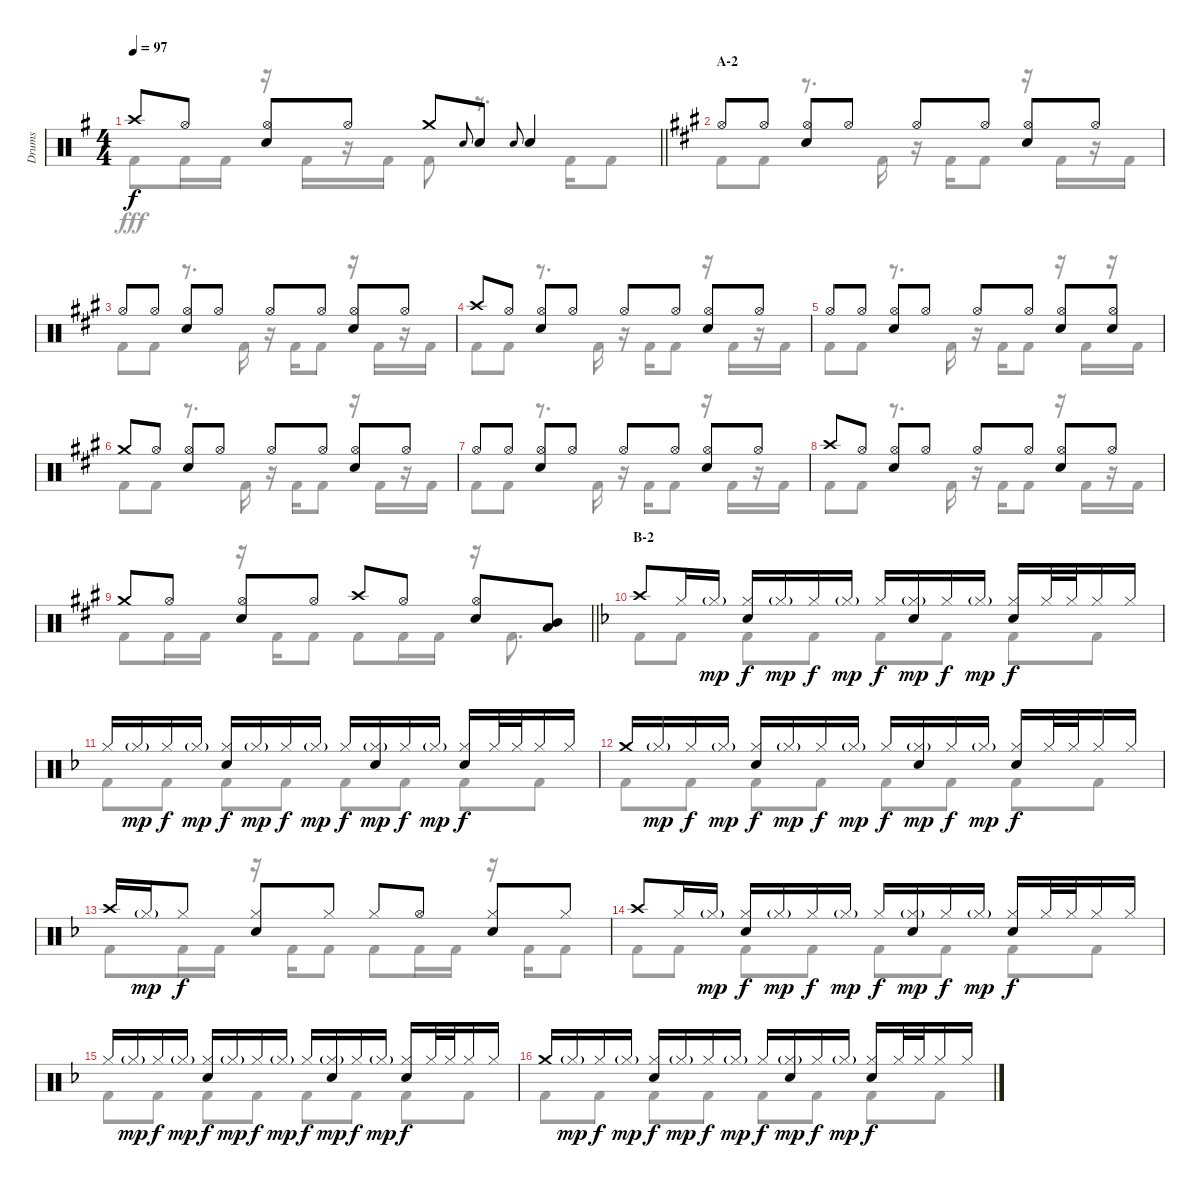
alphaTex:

\track ("Drums" "Drums") {instrument percussion}
\staff {score}
\articulation defaults
\voice
\ts (4 4)
\tempo 97
\clef neutral
\barLineRight lightlight
\ks eminor "Crash high (hit)".8{dy f} "Hi-Hat (open)".8
("Hi-Hat (open)" "Snare (hit) 2").8 "Hi-Hat (open)".8 "Crash medium (hit)".8 "Snare (hit) 2".8{gr onbeat} "Snare (hit) 2".8 "Snare (hit) 2".8{gr onbeat} "Snare (hit) 2".4 |
\section ("" "A-2")
\ks a "Hi-Hat (open)".8 "Hi-Hat (open)".8
("Hi-Hat (open)" "Snare (hit) 2").8 "Hi-Hat (open)".8 "Hi-Hat (open)".8 "Hi-Hat (open)".8 ("Hi-Hat (open)" "Snare (hit) 2").8 "Hi-Hat (open)".8 |
"Hi-Hat (open)".8 "Hi-Hat (open)".8 ("Hi-Hat (open)" "Snare (hit) 2").8 "Hi-Hat (open)".8 "Hi-Hat (open)".8 "Hi-Hat (open)".8 ("Hi-Hat (open)" "Snare (hit) 2").8 "Hi-Hat (open)".8 |
"Crash high (hit)".8 "Hi-Hat (open)".8 ("Hi-Hat (open)" "Snare (hit) 2").8 "Hi-Hat (open)".8 "Hi-Hat (open)".8 "Hi-Hat (open)".8 ("Hi-Hat (open)" "Snare (hit) 2").8 "Hi-Hat (open)".8 |
"Hi-Hat (open)".8 "Hi-Hat (open)".8 ("Hi-Hat (open)" "Snare (hit) 2").8 "Hi-Hat (open)".8 "Hi-Hat (open)".8 "Hi-Hat (open)".8 ("Hi-Hat (open)" "Snare (hit) 2").8 ("Hi-Hat (open)" "Snare (hit) 2").8 |
"Crash medium (hit)".8 "Hi-Hat (open)".8 ("Hi-Hat (open)" "Snare (hit) 2").8 "Hi-Hat (open)".8 "Hi-Hat (open)".8 "Hi-Hat (open)".8 ("Hi-Hat (open)" "Snare (hit) 2").8 "Hi-Hat (open)".8 |
"Hi-Hat (open)".8 "Hi-Hat (open)".8 ("Hi-Hat (open)" "Snare (hit) 2").8 "Hi-Hat (open)".8 "Hi-Hat (open)".8 "Hi-Hat (open)".8 ("Hi-Hat (open)" "Snare (hit) 2").8 "Hi-Hat (open)".8 |
"Crash high (hit)".8 "Hi-Hat (open)".8 ("Hi-Hat (open)" "Snare (hit) 2").8 "Hi-Hat (open)".8 "Hi-Hat (open)".8 "Hi-Hat (open)".8 ("Hi-Hat (open)" "Snare (hit) 2").8 "Hi-Hat (open)".8 |
\barLineRight lightlight "Crash medium (hit)".8 "Hi-Hat (open)".8
("Hi-Hat (open)" "Snare (hit) 2").8 "Hi-Hat (open)".8 "Crash high (hit)".8 "Hi-Hat (open)".8 ("Hi-Hat (open)" "Snare (hit) 2").8 ("Mid Tom (hit)" "Low Tom (hit)").8 |
\section ("" "B-2")
\ks f "Crash high (hit)".8 "Hi-Hat (closed)".16 "Hi-Hat (closed)"{g}.16{dy mp}
("Hi-Hat (closed)" "Snare (hit) 2").16{dy f} "Hi-Hat (closed)"{g}.16{dy mp} "Hi-Hat (closed)".16{dy f} "Hi-Hat (closed)"{g}.16{dy mp} "Hi-Hat (closed)".16{dy f} ("Hi-Hat (closed)"{g} "Snare (hit) 2").16{dy mp} "Hi-Hat (closed)".16{dy f} "Hi-Hat (closed)"{g}.16{dy mp} ("Hi-Hat (closed)" "Snare (hit) 2").16{dy f} "Hi-Hat (closed)".32 "Hi-Hat (closed)".32 "Hi-Hat (closed)".16 "Hi-Hat (closed)".16 |
"Hi-Hat (closed)".16 "Hi-Hat (closed)"{g}.16{dy mp} "Hi-Hat (closed)".16{dy f} "Hi-Hat (closed)"{g}.16{dy mp} ("Hi-Hat (closed)" "Snare (hit) 2").16{dy f} "Hi-Hat (closed)"{g}.16{dy mp} "Hi-Hat (closed)".16{dy f} "Hi-Hat (closed)"{g}.16{dy mp} "Hi-Hat (closed)".16{dy f} ("Hi-Hat (closed)"{g} "Snare (hit) 2").16{dy mp} "Hi-Hat (closed)".16{dy f} "Hi-Hat (closed)"{g}.16{dy mp} ("Hi-Hat (closed)" "Snare (hit) 2").16{dy f} "Hi-Hat (closed)".32 "Hi-Hat (closed)".32 "Hi-Hat (closed)".16 "Hi-Hat (closed)".16 |
"Crash medium (hit)".16 "Hi-Hat (closed)"{g}.16{dy mp} "Hi-Hat (closed)".16{dy f} "Hi-Hat (closed)"{g}.16{dy mp} ("Hi-Hat (closed)" "Snare (hit) 2").16{dy f} "Hi-Hat (closed)"{g}.16{dy mp} "Hi-Hat (closed)".16{dy f} "Hi-Hat (closed)"{g}.16{dy mp} "Hi-Hat (closed)".16{dy f} ("Hi-Hat (closed)"{g} "Snare (hit) 2").16{dy mp} "Hi-Hat (closed)".16{dy f} "Hi-Hat (closed)"{g}.16{dy mp} ("Hi-Hat (closed)" "Snare (hit) 2").16{dy f} "Hi-Hat (closed)".32 "Hi-Hat (closed)".32 "Hi-Hat (closed)".16 "Hi-Hat (closed)".16 |
"Crash high (hit)".16 "Hi-Hat (closed)"{g}.16{dy mp} "Hi-Hat (closed)".8{dy f} ("Hi-Hat (closed)" "Snare (hit) 2").8 "Hi-Hat (closed)".8 "Hi-Hat (closed)".8 "Hi-Hat (open)".8 ("Hi-Hat (closed)" "Snare (hit) 2").8 "Hi-Hat (closed)".8 |
"Crash high (hit)".8 "Hi-Hat (closed)".16 "Hi-Hat (closed)"{g}.16{dy mp} ("Hi-Hat (closed)" "Snare (hit) 2").16{dy f} "Hi-Hat (closed)"{g}.16{dy mp} "Hi-Hat (closed)".16{dy f} "Hi-Hat (closed)"{g}.16{dy mp} "Hi-Hat (closed)".16{dy f} ("Hi-Hat (closed)"{g} "Snare (hit) 2").16{dy mp} "Hi-Hat (closed)".16{dy f} "Hi-Hat (closed)"{g}.16{dy mp} ("Hi-Hat (closed)" "Snare (hit) 2").16{dy f} "Hi-Hat (closed)".32 "Hi-Hat (closed)".32 "Hi-Hat (closed)".16 "Hi-Hat (closed)".16 |
"Hi-Hat (closed)".16 "Hi-Hat (closed)"{g}.16{dy mp} "Hi-Hat (closed)".16{dy f} "Hi-Hat (closed)"{g}.16{dy mp} ("Hi-Hat (closed)" "Snare (hit) 2").16{dy f} "Hi-Hat (closed)"{g}.16{dy mp} "Hi-Hat (closed)".16{dy f} "Hi-Hat (closed)"{g}.16{dy mp} "Hi-Hat (closed)".16{dy f} ("Hi-Hat (closed)"{g} "Snare (hit) 2").16{dy mp} "Hi-Hat (closed)".16{dy f} "Hi-Hat (closed)"{g}.16{dy mp} ("Hi-Hat (closed)" "Snare (hit) 2").16{dy f} "Hi-Hat (closed)".32 "Hi-Hat (closed)".32 "Hi-Hat (closed)".16 "Hi-Hat (closed)".16 |
"Crash medium (hit)".16 "Hi-Hat (closed)"{g}.16{dy mp} "Hi-Hat (closed)".16{dy f} "Hi-Hat (closed)"{g}.16{dy mp} ("Hi-Hat (closed)" "Snare (hit) 2").16{dy f} "Hi-Hat (closed)"{g}.16{dy mp} "Hi-Hat (closed)".16{dy f} "Hi-Hat (closed)"{g}.16{dy mp} "Hi-Hat (closed)".16{dy f} ("Hi-Hat (closed)"{g} "Snare (hit) 2").16{dy mp} "Hi-Hat (closed)".16{dy f} "Hi-Hat (closed)"{g}.16{dy mp} ("Hi-Hat (closed)" "Snare (hit) 2").16{dy f} "Hi-Hat (closed)".32 "Hi-Hat (closed)".32 "Hi-Hat (closed)".16 "Hi-Hat (closed)".16
\voice
\clef neutral
\ottava regular
\simile none
\barLineRight lightlight
\ks eminor "Kick (hit) 2".8{dy fff} "Kick (hit) 2".16 "Kick (hit) 2".16
r.16 "Kick (hit) 2".16 r.16 "Kick (hit) 2".16 "Kick (hit) 2".8 r.8{d} "Kick (hit) 2".16 "Kick (hit) 2".8 |
\ks a "Kick (hit) 2".8 "Kick (hit) 2".8
r.8{d} "Kick (hit) 2".16 r.16 "Kick (hit) 2".16 "Kick (hit) 2".8 r.16 "Kick (hit) 2".16 r.16 "Kick (hit) 2".16 |
"Kick (hit) 2".8 "Kick (hit) 2".8 r.8{d} "Kick (hit) 2".16 r.16 "Kick (hit) 2".16 "Kick (hit) 2".8 r.16 "Kick (hit) 2".16 r.16 "Kick (hit) 2".16 |
"Kick (hit) 2".8 "Kick (hit) 2".8 r.8{d} "Kick (hit) 2".16 r.16 "Kick (hit) 2".16 "Kick (hit) 2".8 r.16 "Kick (hit) 2".16 r.16 "Kick (hit) 2".16 |
"Kick (hit) 2".8 "Kick (hit) 2".8 r.8{d} "Kick (hit) 2".16 r.16 "Kick (hit) 2".16 "Kick (hit) 2".8 r.16 "Kick (hit) 2".16 r.16 "Kick (hit) 2".16 |
"Kick (hit) 2".8 "Kick (hit) 2".8 r.8{d} "Kick (hit) 2".16 r.16 "Kick (hit) 2".16 "Kick (hit) 2".8 r.16 "Kick (hit) 2".16 r.16 "Kick (hit) 2".16 |
"Kick (hit) 2".8 "Kick (hit) 2".8 r.8{d} "Kick (hit) 2".16 r.16 "Kick (hit) 2".16 "Kick (hit) 2".8 r.16 "Kick (hit) 2".16 r.16 "Kick (hit) 2".16 |
"Kick (hit) 2".8 "Kick (hit) 2".8 r.8{d} "Kick (hit) 2".16 r.16 "Kick (hit) 2".16 "Kick (hit) 2".8 r.16 "Kick (hit) 2".16 r.16 "Kick (hit) 2".16 |
\barLineRight lightlight "Kick (hit) 2".8 "Kick (hit) 2".16 "Kick (hit) 2".16
r.16 "Kick (hit) 2".16 "Kick (hit) 2".8 "Kick (hit) 2".8 "Kick (hit) 2".16 "Kick (hit) 2".16 r.16 "Kick (hit) 2".8{d} |
\ks f "Kick (hit) 2".8 "Kick (hit) 2".8 "Kick (hit) 2".8 "Kick (hit) 2".8 "Kick (hit) 2".8 "Kick (hit) 2".8 "Kick (hit) 2".8 "Kick (hit) 2".8
|
"Kick (hit) 2".8 "Kick (hit) 2".8 "Kick (hit) 2".8 "Kick (hit) 2".8 "Kick (hit) 2".8 "Kick (hit) 2".8 "Kick (hit) 2".8 "Kick (hit) 2".8 |
"Kick (hit) 2".8 "Kick (hit) 2".8 "Kick (hit) 2".8 "Kick (hit) 2".8 "Kick (hit) 2".8 "Kick (hit) 2".8 "Kick (hit) 2".8 "Kick (hit) 2".8 |
"Kick (hit) 2".8 "Kick (hit) 2".16 "Kick (hit) 2".16 r.16 "Kick (hit) 2".16 "Kick (hit) 2".8 "Kick (hit) 2".8 "Kick (hit) 2".16 "Kick (hit) 2".16 r.16 "Kick (hit) 2".16 "Kick (hit) 2".8 |
"Kick (hit) 2".8 "Kick (hit) 2".8 "Kick (hit) 2".8 "Kick (hit) 2".8 "Kick (hit) 2".8 "Kick (hit) 2".8 "Kick (hit) 2".8 "Kick (hit) 2".8 |
"Kick (hit) 2".8 "Kick (hit) 2".8 "Kick (hit) 2".8 "Kick (hit) 2".8 "Kick (hit) 2".8 "Kick (hit) 2".8 "Kick (hit) 2".8 "Kick (hit) 2".8 |
"Kick (hit) 2".8 "Kick (hit) 2".8 "Kick (hit) 2".8 "Kick (hit) 2".8 "Kick (hit) 2".8 "Kick (hit) 2".8 "Kick (hit) 2".8 "Kick (hit) 2".8
